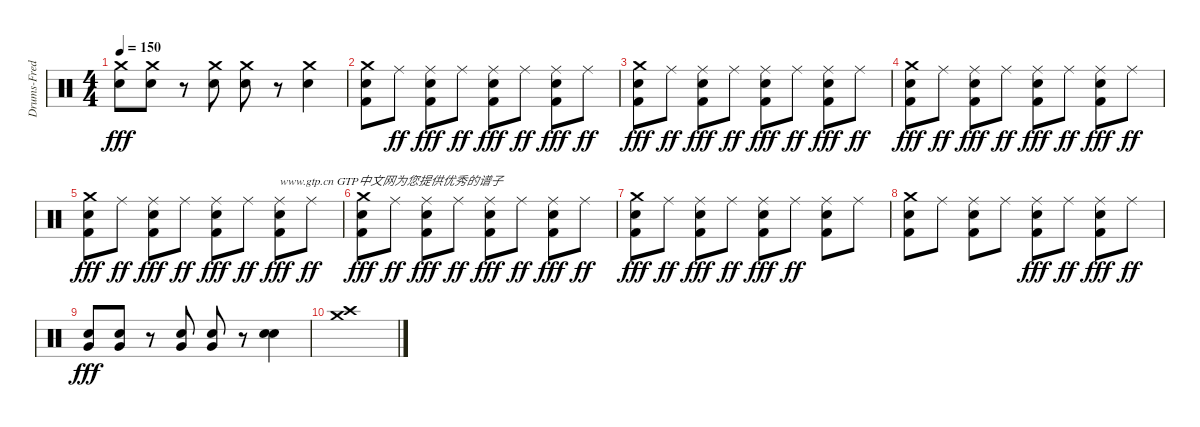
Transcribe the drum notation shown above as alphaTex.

\track ("Drums-Fred" "Drums-Fred") {instrument percussion}
\staff {score}
\articulation defaults
\ts (4 4)
\tempo 150
\clef neutral
\ks c
("Crash medium (hit)" "Snare (hit) 2").8{dy fff} ("Crash medium (hit)" "Snare (hit) 2").8 r.8 ("Crash medium (hit)" "Snare (hit) 2").8 ("Crash medium (hit)" "Snare (hit) 2").8 r.8 ("Crash medium (hit)" "Snare (hit) 2").4 |
("Crash medium (hit)" "Snare (hit) 2" "Kick (hit) 2").8 "Ride (middle)".8{dy ff} ("Ride (middle)" "Snare (hit) 2" "Kick (hit) 2").8{dy fff} "Ride (middle)".8{dy ff} ("Ride (middle)" "Snare (hit) 2" "Kick (hit) 2").8{dy fff} "Ride (middle)".8{dy ff} ("Ride (middle)" "Snare (hit) 2" "Kick (hit) 2").8{dy fff} "Ride (middle)".8{dy ff} |
("Crash medium (hit)" "Snare (hit) 2" "Kick (hit) 2").8{dy fff} "Ride (middle)".8{dy ff} ("Ride (middle)" "Snare (hit) 2" "Kick (hit) 2").8{dy fff} "Ride (middle)".8{dy ff} ("Ride (middle)" "Snare (hit) 2" "Kick (hit) 2").8{dy fff} "Ride (middle)".8{dy ff} ("Ride (middle)" "Snare (hit) 2" "Kick (hit) 2").8{dy fff} "Ride (middle)".8{dy ff} |
("Crash medium (hit)" "Snare (hit) 2" "Kick (hit) 2").8{dy fff} "Ride (middle)".8{dy ff} ("Ride (middle)" "Snare (hit) 2" "Kick (hit) 2").8{dy fff} "Ride (middle)".8{dy ff} ("Ride (middle)" "Snare (hit) 2" "Kick (hit) 2").8{dy fff} "Ride (middle)".8{dy ff} ("Ride (middle)" "Snare (hit) 2" "Kick (hit) 2").8{dy fff} "Ride (middle)".8{dy ff} |
("Crash medium (hit)" "Snare (hit) 2" "Kick (hit) 2").8{dy fff} "Ride (middle)".8{dy ff} ("Ride (middle)" "Snare (hit) 2" "Kick (hit) 2").8{dy fff} "Ride (middle)".8{dy ff} ("Ride (middle)" "Snare (hit) 2" "Kick (hit) 2").8{dy fff} "Ride (middle)".8{dy ff} ("Ride (middle)" "Snare (hit) 2" "Kick (hit) 2").8{txt "www.gtp.cn GTP中文网为您提供优秀的谱子" dy fff} "Ride (middle)".8{dy ff} |
("Crash medium (hit)" "Snare (hit) 2" "Kick (hit) 2").8{dy fff} "Ride (middle)".8{dy ff} ("Ride (middle)" "Snare (hit) 2" "Kick (hit) 2").8{dy fff} "Ride (middle)".8{dy ff} ("Ride (middle)" "Snare (hit) 2" "Kick (hit) 2").8{dy fff} "Ride (middle)".8{dy ff} ("Ride (middle)" "Snare (hit) 2" "Kick (hit) 2").8{dy fff} "Ride (middle)".8{dy ff} |
("Crash medium (hit)" "Snare (hit) 2" "Kick (hit) 2").8{dy fff} "Ride (middle)".8{dy ff} ("Ride (middle)" "Snare (hit) 2" "Kick (hit) 2").8{dy fff} "Ride (middle)".8{dy ff} ("Ride (middle)" "Snare (hit) 2" "Kick (hit) 2").8{dy fff} "Ride (middle)".8{dy ff} ("Ride (middle)" "Snare (hit) 2" "Kick (hit) 2").8 "Ride (middle)".8 |
("Crash medium (hit)" "Snare (hit) 2" "Kick (hit) 2").8 "Ride (middle)".8 ("Ride (middle)" "Snare (hit) 2" "Kick (hit) 2").8 "Ride (middle)".8 ("Ride (middle)" "Snare (hit) 2" "Kick (hit) 2").8{dy fff} "Ride (middle)".8{dy ff} ("Ride (middle)" "Snare (hit) 2" "Kick (hit) 2").8{dy fff} "Ride (middle)".8{dy ff} |
("Snare (hit) 2" "Very Low Tom (hit)").8{dy fff} ("Snare (hit) 2" "Very Low Tom (hit)").8 r.8 ("Snare (hit) 2" "Very Low Tom (hit)").8 ("Snare (hit) 2" "Very Low Tom (hit)").8 r.8 ("Snare (hit) 2" "Snare (hit) 2").4 |
("Crash medium (hit)" "Crash high (hit)").1
